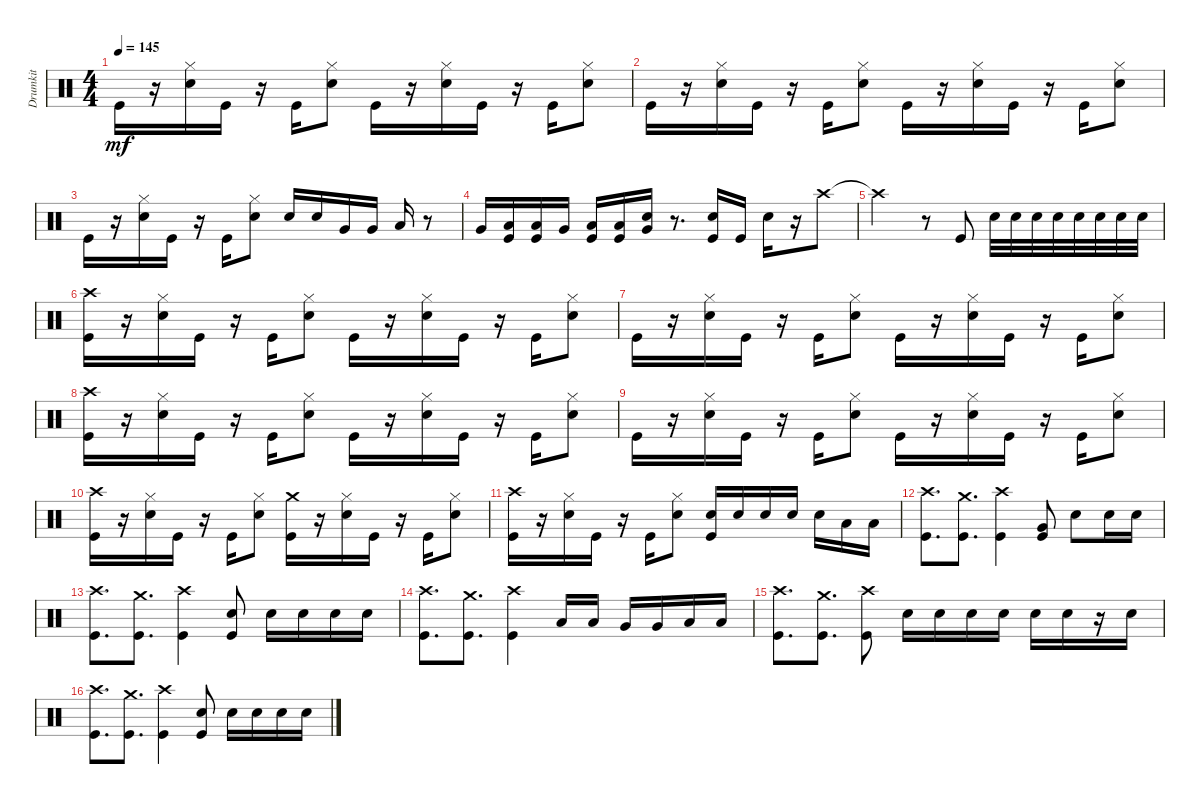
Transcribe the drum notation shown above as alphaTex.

\track ("Drumkit" "Drumkit") {instrument percussion}
\staff {score}
\articulation defaults
\ts (4 4)
\tempo 145
\clef neutral
\ks c "Kick (hit)".16{dy mf}
r.16 ("Snare (hit) 2" "Hi-Hat (closed)").16 "Kick (hit)".16 r.16 "Kick (hit)".16 ("Snare (hit) 2" "Hi-Hat (closed)").8 "Kick (hit)".16 r.16 ("Snare (hit) 2" "Hi-Hat (closed)").16 "Kick (hit)".16 r.16 "Kick (hit)".16 ("Snare (hit) 2" "Hi-Hat (closed)").8 |
"Kick (hit)".16 r.16 ("Snare (hit) 2" "Hi-Hat (closed)").16 "Kick (hit)".16 r.16 "Kick (hit)".16 ("Snare (hit) 2" "Hi-Hat (closed)").8 "Kick (hit)".16 r.16 ("Snare (hit) 2" "Hi-Hat (closed)").16 "Kick (hit)".16 r.16 "Kick (hit)".16 ("Snare (hit) 2" "Hi-Hat (closed)").8 |
"Kick (hit)".16 r.16 ("Snare (hit) 2" "Hi-Hat (closed)").16 "Kick (hit)".16 r.16 "Kick (hit)".16 ("Snare (hit) 2" "Hi-Hat (closed)").8 "Snare (hit) 2".16 "Snare (hit) 2".16 "Very Low Tom (hit)".16 "Very Low Tom (hit)".16 "Low Floor Tom (hit)".16 r.8 |
"Very Low Tom (hit)".16 ("Low Floor Tom (hit)" "Kick (hit)").16 ("Low Floor Tom (hit)" "Kick (hit)").16 "Very Low Tom (hit)".16 ("Kick (hit)" "Low Floor Tom (hit)").16 ("Kick (hit)" "Low Floor Tom (hit)").16 ("Very Low Tom (hit)" "Snare (hit) 2").16 r.8{d} ("Kick (hit)" "Snare (hit) 2").16 "Kick (hit)".16 "Snare (hit) 2".16 r.16 "Crash high (hit)".8 |
"Crash high (hit)"{t}.2 r.8 "Kick (hit)".8 "Snare (hit) 2".32 "Snare (hit) 2".32 "Snare (hit) 2".32 "Snare (hit) 2".32 "Snare (hit) 2".32 "Snare (hit) 2".32 "Snare (hit) 2".32 "Snare (hit) 2".32 |
("Crash high (hit)" "Kick (hit)").16 r.16 ("Snare (hit) 2" "Hi-Hat (closed)").16 "Kick (hit)".16 r.16 "Kick (hit)".16 ("Snare (hit) 2" "Hi-Hat (closed)").8 "Kick (hit)".16 r.16 ("Snare (hit) 2" "Hi-Hat (closed)").16 "Kick (hit)".16 r.16 "Kick (hit)".16 ("Snare (hit) 2" "Hi-Hat (closed)").8 |
"Kick (hit)".16 r.16 ("Snare (hit) 2" "Hi-Hat (closed)").16 "Kick (hit)".16 r.16 "Kick (hit)".16 ("Snare (hit) 2" "Hi-Hat (closed)").8 "Kick (hit)".16 r.16 ("Snare (hit) 2" "Hi-Hat (closed)").16 "Kick (hit)".16 r.16 "Kick (hit)".16 ("Snare (hit) 2" "Hi-Hat (closed)").8 |
("Crash high (hit)" "Kick (hit)").16 r.16 ("Snare (hit) 2" "Hi-Hat (closed)").16 "Kick (hit)".16 r.16 "Kick (hit)".16 ("Snare (hit) 2" "Hi-Hat (closed)").8 "Kick (hit)".16 r.16 ("Snare (hit) 2" "Hi-Hat (closed)").16 "Kick (hit)".16 r.16 "Kick (hit)".16 ("Snare (hit) 2" "Hi-Hat (closed)").8 |
"Kick (hit)".16 r.16 ("Snare (hit) 2" "Hi-Hat (closed)").16 "Kick (hit)".16 r.16 "Kick (hit)".16 ("Snare (hit) 2" "Hi-Hat (closed)").8 "Kick (hit)".16 r.16 ("Snare (hit) 2" "Hi-Hat (closed)").16 "Kick (hit)".16 r.16 "Kick (hit)".16 ("Snare (hit) 2" "Hi-Hat (closed)").8 |
("Crash high (hit)" "Kick (hit)").16 r.16 ("Snare (hit) 2" "Hi-Hat (closed)").16 "Kick (hit)".16 r.16 "Kick (hit)".16 ("Snare (hit) 2" "Hi-Hat (closed)").8 ("Kick (hit)" "Crash medium (hit)").16 r.16 ("Snare (hit) 2" "Hi-Hat (closed)").16 "Kick (hit)".16 r.16 "Kick (hit)".16 ("Snare (hit) 2" "Hi-Hat (closed)").8 |
("Kick (hit)" "Crash high (hit)").16 r.16 ("Snare (hit) 2" "Hi-Hat (closed)").16 "Kick (hit)".16 r.16 "Kick (hit)".16 ("Snare (hit) 2" "Hi-Hat (closed)").8 ("Kick (hit)" "Snare (hit) 2").16 "Snare (hit) 2".16 "Snare (hit) 2".16 "Snare (hit) 2".16 "Snare (hit) 2".16 "Low Tom (hit)".16 "Low Tom (hit)".16 |
("Kick (hit)" "Crash high (hit)").8{d} ("Crash medium (hit)" "Kick (hit)").8{d} ("Kick (hit)" "Crash high (hit)").4 ("Kick (hit)" "Very Low Tom (hit)").8 "Snare (hit) 2".8 "Snare (hit) 2".16 "Snare (hit) 2".16 |
("Kick (hit)" "Crash high (hit)").8{d} ("Crash medium (hit)" "Kick (hit)").8{d} ("Kick (hit)" "Crash high (hit)").4 ("Kick (hit)" "Snare (hit) 2").8 "Snare (hit) 2".16 "Snare (hit) 2".16 "Snare (hit) 2".16 "Snare (hit) 2".16 |
("Kick (hit)" "Crash high (hit)").8{d} ("Crash medium (hit)" "Kick (hit)").8{d} ("Kick (hit)" "Crash high (hit)").4 "Low Tom (hit)".16 "Low Tom (hit)".16 "Very Low Tom (hit)".16 "Very Low Tom (hit)".16 "Low Floor Tom (hit)".16 "Low Floor Tom (hit)".16 |
("Kick (hit)" "Crash high (hit)").8{d} ("Crash medium (hit)" "Kick (hit)").8{d} ("Kick (hit)" "Crash high (hit)").8 "Snare (hit) 2".16 "Snare (hit) 2".16 "Snare (hit) 2".16 "Snare (hit) 2".16 "Snare (hit) 2".16 "Snare (hit) 2".16 r.16 "Snare (hit) 2".16 |
("Kick (hit)" "Crash high (hit)").8{d} ("Crash medium (hit)" "Kick (hit)").8{d} ("Kick (hit)" "Crash high (hit)").4 ("Kick (hit)" "Snare (hit) 2").8 "Snare (hit) 2".16 "Snare (hit) 2".16 "Snare (hit) 2".16 "Snare (hit) 2".16
